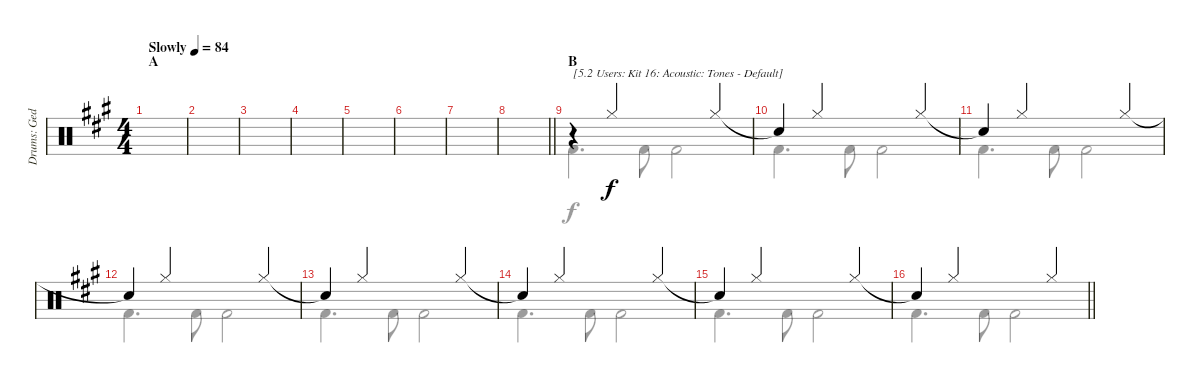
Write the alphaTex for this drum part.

\track ("Drums: Ged Lynch" "Drums: Ged") {instrument percussion}
\staff {score}
\articulation defaults
\voice
\ts (4 4)
\section ("" "A")
\tempo (84 "Slowly")
\clef neutral
\ks a
|
|
|
|
|
|
|
\barLineRight lightlight
|
\section ("" "B")
r.4{txt "[5.2 Users: Kit 16: Acoustic: Tones - Default]"} "Hi-Hat (closed)".2 "Hi-Hat (closed)".4 |
"Snare (hit)"{t}.4 "Hi-Hat (closed)".2 "Hi-Hat (closed)".4 |
"Snare (hit)"{t}.4 "Hi-Hat (closed)".2 "Hi-Hat (closed)".4 |
"Snare (hit)"{t}.4 "Hi-Hat (closed)".2 "Hi-Hat (closed)".4 |
"Snare (hit)"{t}.4 "Hi-Hat (closed)".2 "Hi-Hat (closed)".4 |
"Snare (hit)"{t}.4 "Hi-Hat (closed)".2 "Hi-Hat (closed)".4 |
"Snare (hit)"{t}.4 "Hi-Hat (closed)".2 "Hi-Hat (closed)".4 |
\barLineRight lightlight "Snare (hit)"{t}.4 "Hi-Hat (closed)".2 "Hi-Hat (closed)".4
\voice
\clef neutral
\ottava regular
\simile none
\ks a
|
|
|
|
|
|
|
\barLineRight lightlight
|
"Kick (hit) 2".4{d} "Kick (hit) 2".8 "Kick (hit) 2".2 |
"Kick (hit) 2".4{d} "Kick (hit) 2".8 "Kick (hit) 2".2 |
"Kick (hit) 2".4{d} "Kick (hit) 2".8 "Kick (hit) 2".2 |
"Kick (hit) 2".4{d} "Kick (hit) 2".8 "Kick (hit) 2".2 |
"Kick (hit) 2".4{d} "Kick (hit) 2".8 "Kick (hit) 2".2 |
"Kick (hit) 2".4{d} "Kick (hit) 2".8 "Kick (hit) 2".2 |
"Kick (hit) 2".4{d} "Kick (hit) 2".8 "Kick (hit) 2".2 |
\barLineRight lightlight "Kick (hit) 2".4{d} "Kick (hit) 2".8 "Kick (hit) 2".2
